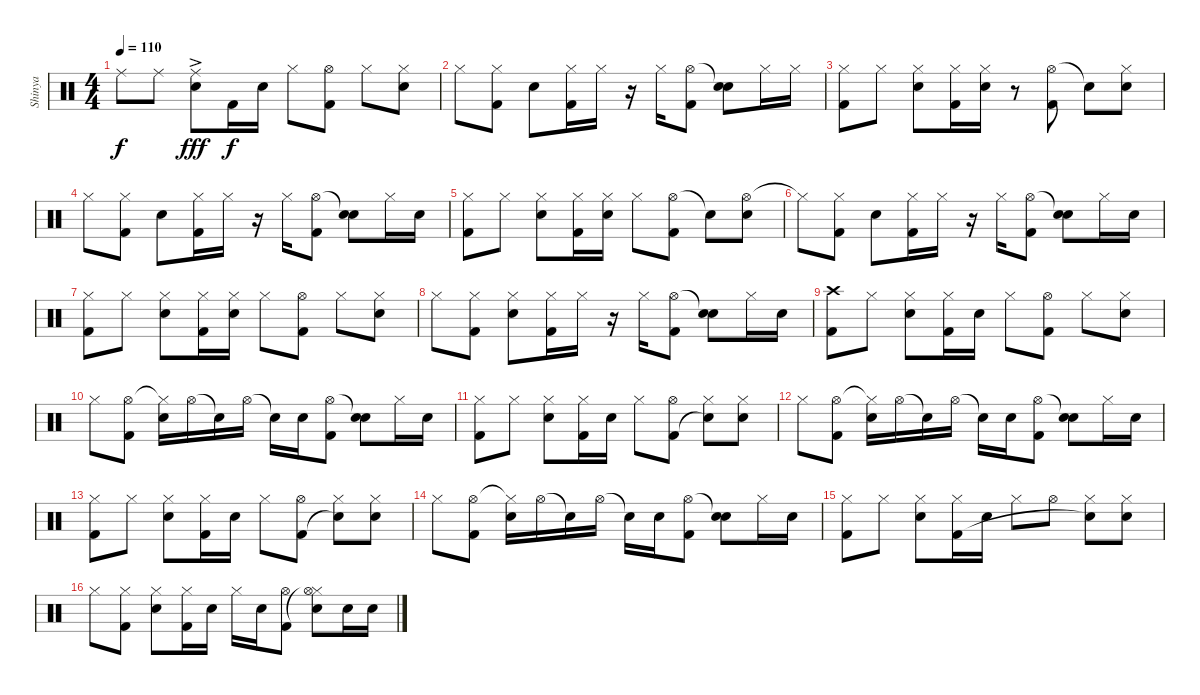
\track ("Shinya" "Shinya") {instrument percussion}
\staff {score}
\articulation defaults
\ts (4 4)
\tempo 110
\clef neutral
\ks c "Ride (middle)".8{dy f} "Ride (middle)".8
("Ride (middle)"{ac} "Snare (hit) 2").8{dy fff} "Kick (hit) 2".16{dy f} "Snare (hit) 2".16 "Hi-Hat (closed)".8 ("Hi-Hat (open)" "Kick (hit) 2").8 "Hi-Hat (closed)".8 ("Hi-Hat (closed)" "Snare (hit) 2").8 |
"Hi-Hat (closed)".8 ("Hi-Hat (closed)" "Kick (hit) 2").8 "Snare (hit) 2".8 ("Hi-Hat (closed)" "Kick (hit) 2").16 "Hi-Hat (closed)".16 r.16 "Hi-Hat (closed)".16 ("Hi-Hat (open)" "Kick (hit) 2").8 ("Snare (hit)"{t} "Snare (hit) 2").8 "Hi-Hat (closed)".16 "Hi-Hat (closed)".16 |
("Hi-Hat (closed)" "Kick (hit) 2").8 "Hi-Hat (closed)".8 ("Snare (hit) 2" "Hi-Hat (closed)").8 ("Hi-Hat (closed)" "Kick (hit) 2").16 ("Hi-Hat (closed)" "Snare (hit) 2").16 r.8 ("Hi-Hat (open)" "Kick (hit) 2").8 "Snare (hit)"{t}.8 ("Hi-Hat (closed)" "Snare (hit) 2").8 |
"Hi-Hat (closed)".8 ("Hi-Hat (closed)" "Kick (hit) 2").8 "Snare (hit) 2".8 ("Hi-Hat (closed)" "Kick (hit) 2").16 "Hi-Hat (closed)".16 r.16 "Hi-Hat (closed)".16 ("Hi-Hat (open)" "Kick (hit) 2").8 ("Snare (hit)"{t} "Snare (hit) 2").8 "Hi-Hat (closed)".16 "Snare (hit) 2".16 |
("Hi-Hat (closed)" "Kick (hit) 2").8 "Hi-Hat (closed)".8 ("Snare (hit) 2" "Hi-Hat (closed)").8 ("Hi-Hat (closed)" "Kick (hit) 2").16 ("Hi-Hat (closed)" "Snare (hit) 2").16 "Hi-Hat (closed)".8 ("Hi-Hat (open)" "Kick (hit) 2").8 "Snare (hit)"{t}.8 ("Hi-Hat (open)" "Snare (hit) 2").8 |
"Hi-Hat (closed)"{t}.8 ("Hi-Hat (closed)" "Kick (hit) 2").8 "Snare (hit) 2".8 ("Hi-Hat (closed)" "Kick (hit) 2").16 "Hi-Hat (closed)".16 r.16 "Hi-Hat (closed)".16 ("Hi-Hat (open)" "Kick (hit) 2").8 ("Snare (hit)"{t} "Snare (hit) 2").8 "Hi-Hat (closed)".16 "Snare (hit) 2".16 |
("Hi-Hat (closed)" "Kick (hit) 2").8 "Hi-Hat (closed)".8 ("Snare (hit) 2" "Hi-Hat (closed)").8 ("Hi-Hat (closed)" "Kick (hit) 2").16 ("Hi-Hat (closed)" "Snare (hit) 2").16 "Hi-Hat (closed)".8 ("Hi-Hat (open)" "Kick (hit) 2").8 "Hi-Hat (closed)".8 ("Hi-Hat (closed)" "Snare (hit) 2").8 |
"Hi-Hat (closed)".8 ("Hi-Hat (closed)" "Kick (hit) 2").8 ("Snare (hit) 2" "Hi-Hat (closed)").8 ("Hi-Hat (closed)" "Kick (hit) 2").16 "Hi-Hat (closed)".16 r.16 "Hi-Hat (closed)".16 ("Hi-Hat (open)" "Kick (hit) 2").8 ("Snare (hit)"{t} "Snare (hit) 2").8 "Hi-Hat (closed)".16 "Snare (hit) 2".16 |
("Crash high (hit)" "Kick (hit) 2").8 "Hi-Hat (closed)".8 ("Hi-Hat (closed)" "Snare (hit) 2").8 ("Hi-Hat (closed)" "Kick (hit) 2").16 "Snare (hit) 2".16 "Hi-Hat (closed)".8 ("Hi-Hat (open)" "Kick (hit) 2").8 "Hi-Hat (closed)".8 ("Hi-Hat (closed)" "Snare (hit) 2").8 |
"Hi-Hat (closed)".8 ("Hi-Hat (open)" "Kick (hit) 2").8 ("Hi-Hat (closed)"{t} "Snare (hit) 2").16 "Hi-Hat (open)".16 "Snare (hit)"{t}.16 "Hi-Hat (open)".16 "Snare (hit)"{t}.16 "Snare (hit) 2".16 ("Hi-Hat (open)" "Kick (hit) 2").8 ("Snare (hit)"{t} "Snare (hit) 2").8 "Hi-Hat (closed)".16 "Snare (hit) 2".16 |
("Hi-Hat (closed)" "Kick (hit) 2").8 "Hi-Hat (closed)".8 ("Hi-Hat (closed)" "Snare (hit) 2").8 ("Hi-Hat (closed)" "Kick (hit) 2").16 "Snare (hit) 2".16 "Hi-Hat (closed)".8 ("Hi-Hat (open)" "Kick (hit) 2").8 ("Hi-Hat (closed)" "Snare (hit)"{t}).8 ("Hi-Hat (closed)" "Snare (hit) 2").8 |
"Hi-Hat (closed)".8 ("Hi-Hat (open)" "Kick (hit) 2").8 ("Hi-Hat (closed)"{t} "Snare (hit) 2").16 "Hi-Hat (open)".16 "Snare (hit)"{t}.16 "Hi-Hat (open)".16 "Snare (hit)"{t}.16 "Snare (hit) 2".16 ("Hi-Hat (open)" "Kick (hit) 2").8 ("Snare (hit)"{t} "Snare (hit) 2").8 "Hi-Hat (closed)".16 "Snare (hit) 2".16 |
("Hi-Hat (closed)" "Kick (hit) 2").8 "Hi-Hat (closed)".8 ("Hi-Hat (closed)" "Snare (hit) 2").8 ("Hi-Hat (closed)" "Kick (hit) 2").16 "Snare (hit) 2".16 "Hi-Hat (closed)".8 ("Hi-Hat (open)" "Kick (hit) 2").8 ("Hi-Hat (closed)" "Snare (hit)"{t}).8 ("Hi-Hat (closed)" "Snare (hit) 2").8 |
"Hi-Hat (closed)".8 ("Hi-Hat (open)" "Kick (hit) 2").8 ("Hi-Hat (closed)"{t} "Snare (hit) 2").16 "Hi-Hat (open)".16 "Snare (hit)"{t}.16 "Hi-Hat (open)".16 "Snare (hit)"{t}.16 "Snare (hit) 2".16 ("Hi-Hat (open)" "Kick (hit) 2").8 ("Snare (hit)"{t} "Snare (hit) 2").8 "Hi-Hat (closed)".16 "Snare (hit) 2".16 |
("Hi-Hat (closed)" "Kick (hit) 2").8 "Hi-Hat (closed)".8 ("Hi-Hat (closed)" "Snare (hit) 2").8 ("Hi-Hat (closed)" "Kick (hit) 2").16 "Snare (hit) 2".16 "Hi-Hat (closed)".8 "Hi-Hat (open)".8 ("Hi-Hat (closed)" "Snare (hit)"{t}).8 ("Hi-Hat (closed)" "Snare (hit) 2").8 |
"Hi-Hat (closed)".8 ("Hi-Hat (closed)" "Kick (hit) 2").8 ("Hi-Hat (closed)" "Snare (hit) 2").8 ("Hi-Hat (closed)" "Kick (hit) 2").16 "Snare (hit) 2".16 "Hi-Hat (closed)".16 "Snare (hit) 2".16 ("Hi-Hat (open)" "Kick (hit) 2").8 ("Hi-Hat (closed)" "Hi-Hat (open)"{t} "Snare (hit) 2").8 "Snare (hit) 2".16 "Snare (hit) 2".16
